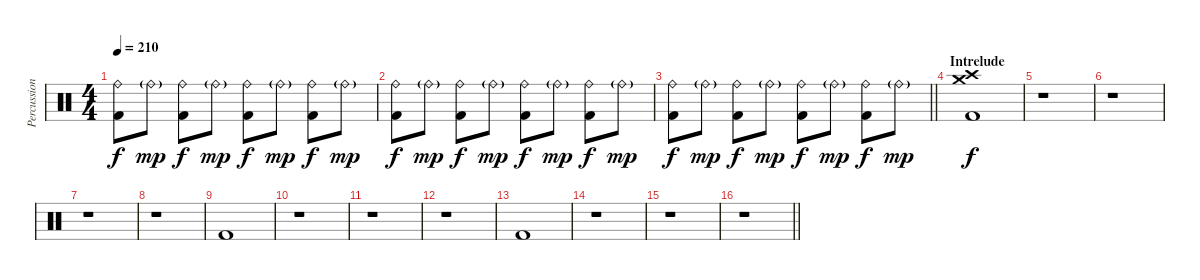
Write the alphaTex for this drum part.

\track ("Percussion" "Percussion") {instrument percussion}
\staff {score}
\articulation defaults
\ts (4 4)
\tempo 210
\clef neutral
\ks c
("Ride (bell)" "Kick (hit) 2").8{dy f} "Ride (bell)"{g}.8{dy mp} ("Ride (bell)" "Kick (hit) 2").8{dy f} "Ride (bell)"{g}.8{dy mp} ("Ride (bell)" "Kick (hit) 2").8{dy f} "Ride (bell)"{g}.8{dy mp} ("Ride (bell)" "Kick (hit) 2").8{dy f} "Ride (bell)"{g}.8{dy mp} |
("Ride (bell)" "Kick (hit) 2").8{dy f} "Ride (bell)"{g}.8{dy mp} ("Ride (bell)" "Kick (hit) 2").8{dy f} "Ride (bell)"{g}.8{dy mp} ("Ride (bell)" "Kick (hit) 2").8{dy f} "Ride (bell)"{g}.8{dy mp} ("Ride (bell)" "Kick (hit) 2").8{dy f} "Ride (bell)"{g}.8{dy mp} |
\barLineRight lightlight
("Ride (bell)" "Kick (hit) 2").8{dy f} "Ride (bell)"{g}.8{dy mp} ("Ride (bell)" "Kick (hit) 2").8{dy f} "Ride (bell)"{g}.8{dy mp} ("Ride (bell)" "Kick (hit) 2").8{dy f} "Ride (bell)"{g}.8{dy mp} ("Ride (bell)" "Kick (hit) 2").8{dy f} "Ride (bell)"{g}.8{dy mp} |
\section ("" "Intrelude")
("Crash medium (hit)" "Crash high (hit)" "Kick (hit) 2").1{dy f} |
r.1 |
r.1 |
r.1 |
r.1 |
"Kick (hit) 2".1 |
r.1 |
r.1 |
r.1 |
"Kick (hit) 2".1 |
r.1 |
r.1 |
\barLineRight lightlight
r.1
